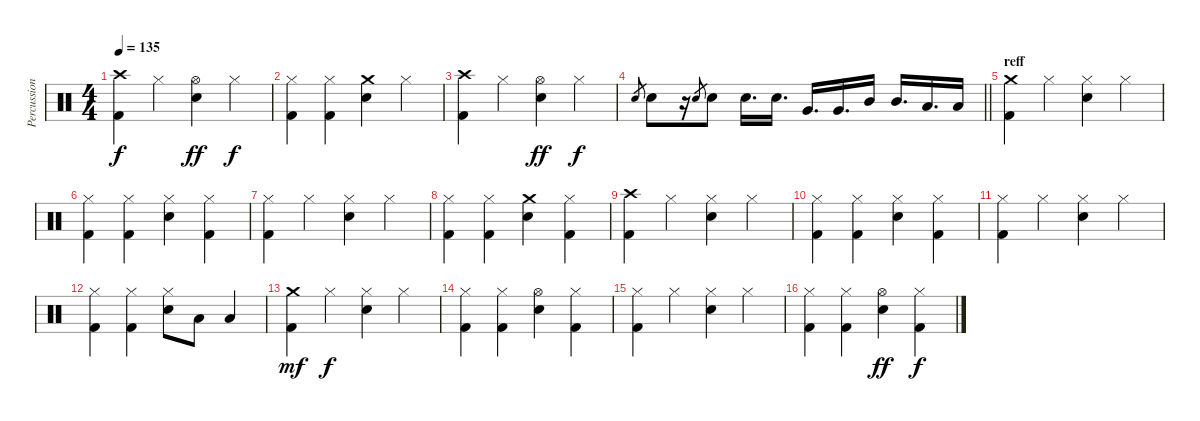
\track ("Percussion" "Percussion") {instrument percussion}
\staff {score}
\articulation defaults
\ts (4 4)
\tempo 135
\clef neutral
\ks c
("Crash high (hit)" "Kick (hit) 2").4{dy f} "Hi-Hat (closed)".4 ("Hi-Hat (open)" "Electric Snare (hit)").4{dy ff} "Hi-Hat (closed)".4{dy f} |
("Hi-Hat (closed)" "Kick (hit) 2").4 ("Hi-Hat (closed)" "Kick (hit) 2").4 ("Crash medium (hit)" "Electric Snare (hit)").4 "Hi-Hat (closed)".4 |
("Crash high (hit)" "Kick (hit) 2").4 "Hi-Hat (closed)".4 ("Hi-Hat (open)" "Electric Snare (hit)").4{dy ff} "Hi-Hat (closed)".4{dy f} |
\barLineRight lightlight "Electric Snare (hit)".8{gr} "Electric Snare (hit)".8
r.16 "Electric Snare (hit)".8{gr} "Electric Snare (hit)".8 "Electric Snare (hit)".16{d} "Electric Snare (hit)".16{d} "Very Low Tom (hit)".16{d} "Very Low Tom (hit)".16{d} "Mid Tom (hit)".16 "Mid Tom (hit)".16{d} "Low Tom (hit)".16{d} "Low Tom (hit)".16 |
\section ("" "reff")
("Crash medium (hit)" "Kick (hit) 2").4 "Hi-Hat (closed)".4 ("Hi-Hat (closed)" "Electric Snare (hit)").4 "Hi-Hat (closed)".4 |
("Hi-Hat (closed)" "Kick (hit) 2").4 ("Hi-Hat (closed)" "Kick (hit) 2").4 ("Hi-Hat (closed)" "Electric Snare (hit)").4 ("Hi-Hat (closed)" "Kick (hit) 2").4 |
("Hi-Hat (closed)" "Kick (hit) 2").4 "Hi-Hat (closed)".4 ("Hi-Hat (closed)" "Electric Snare (hit)").4 "Hi-Hat (closed)".4 |
("Hi-Hat (closed)" "Kick (hit) 2").4 ("Hi-Hat (closed)" "Kick (hit) 2").4 ("Crash medium (hit)" "Electric Snare (hit)").4 ("Hi-Hat (closed)" "Kick (hit) 2").4 |
("Crash high (hit)" "Kick (hit) 2").4 "Hi-Hat (closed)".4 ("Hi-Hat (closed)" "Electric Snare (hit)").4 "Hi-Hat (closed)".4 |
("Hi-Hat (closed)" "Kick (hit) 2").4 ("Hi-Hat (closed)" "Kick (hit) 2").4 ("Hi-Hat (closed)" "Electric Snare (hit)").4 ("Hi-Hat (closed)" "Kick (hit) 2").4 |
("Hi-Hat (closed)" "Kick (hit) 2").4 "Hi-Hat (closed)".4 ("Hi-Hat (closed)" "Electric Snare (hit)").4 "Hi-Hat (closed)".4 |
("Hi-Hat (closed)" "Kick (hit) 2").4 ("Hi-Hat (closed)" "Kick (hit) 2").4 ("Hi-Hat (closed)" "Electric Snare (hit)").8 "Low Tom (hit)".8 "Low Tom (hit)".4 |
("Crash medium (hit)" "Kick (hit) 2").4{dy mf} "Hi-Hat (closed)".4{dy f} ("Hi-Hat (closed)" "Electric Snare (hit)").4 "Hi-Hat (closed)".4 |
("Hi-Hat (closed)" "Kick (hit) 2").4 ("Hi-Hat (closed)" "Kick (hit) 2").4 ("Hi-Hat (open)" "Electric Snare (hit)").4 ("Hi-Hat (closed)" "Kick (hit) 2").4 |
("Hi-Hat (closed)" "Kick (hit) 2").4 "Hi-Hat (closed)".4 ("Hi-Hat (closed)" "Electric Snare (hit)").4 "Hi-Hat (closed)".4 |
("Hi-Hat (closed)" "Kick (hit) 2").4 ("Hi-Hat (closed)" "Kick (hit) 2").4 ("Hi-Hat (open)" "Electric Snare (hit)").4{dy ff} ("Hi-Hat (closed)" "Kick (hit) 2").4{dy f}
